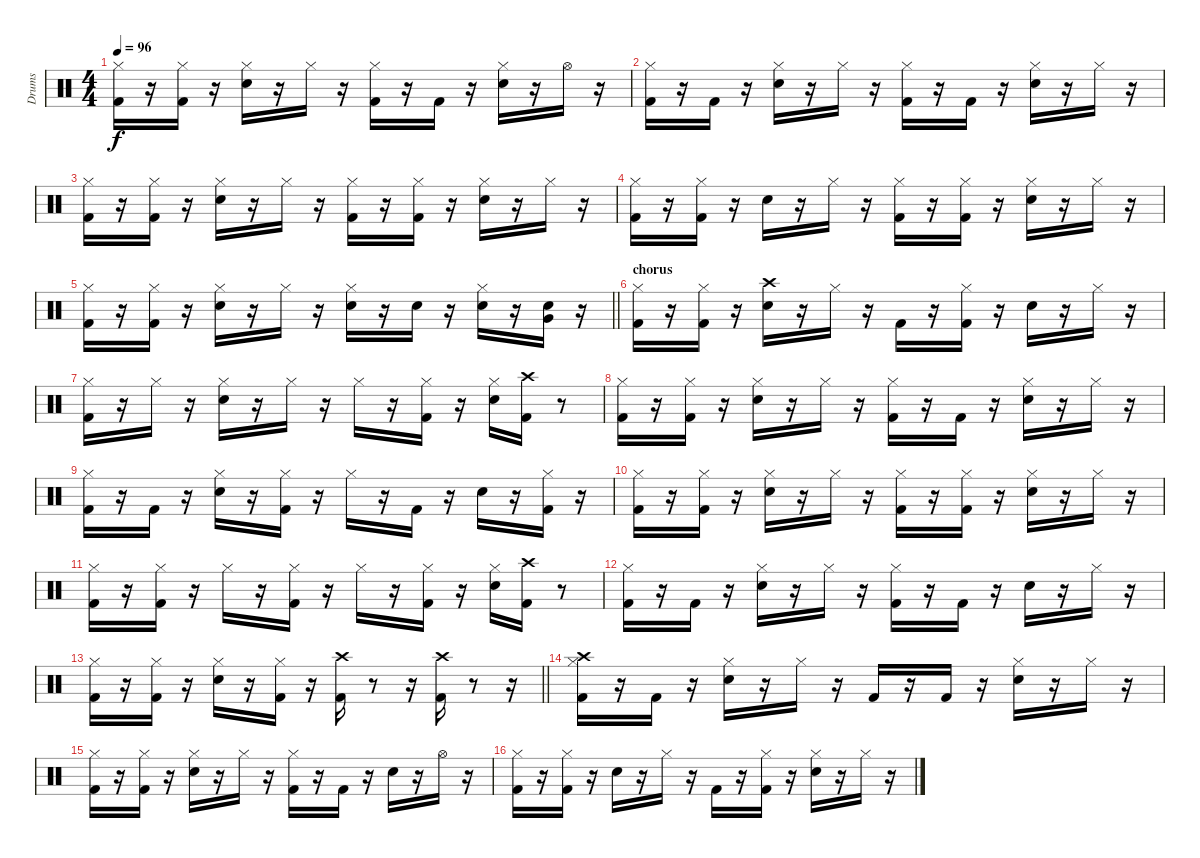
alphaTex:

\track ("Drums" "Drums") {instrument percussion}
\staff {score}
\articulation defaults
\ts (4 4)
\tempo 96
\clef neutral
\ks c
("Kick (hit) 2" "Hi-Hat (closed)").16{dy f} r.16 ("Kick (hit) 2" "Hi-Hat (closed)").16 r.16 ("Snare (hit) 2" "Hi-Hat (closed)").16 r.16 "Hi-Hat (closed)".16 r.16 ("Kick (hit) 2" "Hi-Hat (closed)").16 r.16 "Kick (hit) 2".16 r.16 ("Snare (hit) 2" "Hi-Hat (closed)").16 r.16 "Hi-Hat (open)".16 r.16 |
("Kick (hit) 2" "Hi-Hat (closed)").16 r.16 "Kick (hit) 2".16 r.16 ("Snare (hit) 2" "Hi-Hat (closed)").16 r.16 "Hi-Hat (closed)".16 r.16 ("Kick (hit) 2" "Hi-Hat (closed)").16 r.16 "Kick (hit) 2".16 r.16 ("Snare (hit) 2" "Hi-Hat (closed)").16 r.16 "Hi-Hat (closed)".16 r.16 |
("Kick (hit) 2" "Hi-Hat (closed)").16 r.16 ("Kick (hit) 2" "Hi-Hat (closed)").16 r.16 ("Snare (hit) 2" "Hi-Hat (closed)").16 r.16 "Hi-Hat (closed)".16 r.16 ("Kick (hit) 2" "Hi-Hat (closed)").16 r.16 ("Kick (hit) 2" "Hi-Hat (closed)").16 r.16 ("Snare (hit) 2" "Hi-Hat (closed)").16 r.16 "Hi-Hat (closed)".16 r.16 |
("Kick (hit) 2" "Hi-Hat (closed)").16 r.16 ("Kick (hit) 2" "Hi-Hat (closed)").16 r.16 "Snare (hit) 2".16 r.16 "Hi-Hat (closed)".16 r.16 ("Kick (hit) 2" "Hi-Hat (closed)").16 r.16 ("Kick (hit) 2" "Hi-Hat (closed)").16 r.16 ("Snare (hit) 2" "Hi-Hat (closed)").16 r.16 "Hi-Hat (closed)".16 r.16 |
\barLineRight lightlight
("Kick (hit) 2" "Hi-Hat (closed)").16 r.16 ("Kick (hit) 2" "Hi-Hat (closed)").16 r.16 ("Snare (hit) 2" "Hi-Hat (closed)").16 r.16 "Hi-Hat (closed)".16 r.16 ("Snare (hit) 2" "Hi-Hat (closed)").16 r.16 "Snare (hit) 2".16 r.16 ("Snare (hit) 2" "Hi-Hat (closed)").16 r.16 ("Snare (hit) 2" "Very Low Tom (hit)").16 r.16 |
\section ("" "chorus")
("Kick (hit) 2" "Hi-Hat (closed)").16 r.16 ("Kick (hit) 2" "Hi-Hat (closed)").16 r.16 ("Snare (hit) 2" "Crash high (hit)").16 r.16 "Hi-Hat (closed)".16 r.16 "Kick (hit) 2".16 r.16 ("Kick (hit) 2" "Hi-Hat (closed)").16 r.16 "Snare (hit) 2".16 r.16 "Hi-Hat (closed)".16 r.16 |
("Kick (hit) 2" "Hi-Hat (closed)").16 r.16 "Hi-Hat (closed)".16 r.16 ("Snare (hit) 2" "Hi-Hat (closed)").16 r.16 "Hi-Hat (closed)".16 r.16 "Hi-Hat (closed)".16 r.16 ("Kick (hit) 2" "Hi-Hat (closed)").16 r.16 ("Snare (hit) 2" "Hi-Hat (closed)").16 ("Kick (hit) 2" "Crash high (hit)").16 r.8 |
("Kick (hit) 2" "Hi-Hat (closed)").16 r.16 ("Kick (hit) 2" "Hi-Hat (closed)").16 r.16 ("Snare (hit) 2" "Hi-Hat (closed)").16 r.16 "Hi-Hat (closed)".16 r.16 ("Kick (hit) 2" "Hi-Hat (closed)").16 r.16 "Kick (hit) 2".16 r.16 ("Snare (hit) 2" "Hi-Hat (closed)").16 r.16 "Hi-Hat (closed)".16 r.16 |
("Kick (hit) 2" "Hi-Hat (closed)").16 r.16 "Kick (hit) 2".16 r.16 ("Snare (hit) 2" "Hi-Hat (closed)").16 r.16 ("Kick (hit) 2" "Hi-Hat (closed)").16 r.16 "Hi-Hat (closed)".16 r.16 "Kick (hit) 2".16 r.16 "Snare (hit) 2".16 r.16 ("Kick (hit) 2" "Hi-Hat (closed)").16 r.16 |
("Kick (hit) 2" "Hi-Hat (closed)").16 r.16 ("Kick (hit) 2" "Hi-Hat (closed)").16 r.16 ("Snare (hit) 2" "Hi-Hat (closed)").16 r.16 "Hi-Hat (closed)".16 r.16 ("Kick (hit) 2" "Hi-Hat (closed)").16 r.16 ("Kick (hit) 2" "Hi-Hat (closed)").16 r.16 ("Snare (hit) 2" "Hi-Hat (closed)").16 r.16 "Hi-Hat (closed)".16 r.16 |
("Kick (hit) 2" "Hi-Hat (closed)").16 r.16 ("Kick (hit) 2" "Hi-Hat (closed)").16 r.16 "Hi-Hat (closed)".16 r.16 ("Kick (hit) 2" "Hi-Hat (closed)").16 r.16 "Hi-Hat (closed)".16 r.16 ("Kick (hit) 2" "Hi-Hat (closed)").16 r.16 ("Snare (hit) 2" "Hi-Hat (closed)").16 ("Kick (hit) 2" "Crash high (hit)").16 r.8 |
("Kick (hit) 2" "Hi-Hat (closed)").16 r.16 "Kick (hit) 2".16 r.16 ("Snare (hit) 2" "Hi-Hat (closed)").16 r.16 "Hi-Hat (closed)".16 r.16 ("Kick (hit) 2" "Hi-Hat (closed)").16 r.16 "Kick (hit) 2".16 r.16 "Snare (hit) 2".16 r.16 "Hi-Hat (closed)".16 r.16 |
\barLineRight lightlight
("Kick (hit) 2" "Hi-Hat (closed)").16 r.16 ("Kick (hit) 2" "Hi-Hat (closed)").16 r.16 ("Snare (hit) 2" "Hi-Hat (closed)").16 r.16 ("Kick (hit) 2" "Hi-Hat (closed)").16 r.16 ("Kick (hit) 2" "Crash high (hit)").16 r.8 r.16 ("Kick (hit) 2" "Crash high (hit)").16 r.8 r.16 |
("Kick (hit) 2" "Hi-Hat (closed)" "Crash high (hit)").16 r.16 "Kick (hit) 2".16 r.16 ("Snare (hit) 2" "Hi-Hat (closed)").16 r.16 "Hi-Hat (closed)".16 r.16 "Kick (hit) 2".16 r.16 "Kick (hit) 2".16 r.16 ("Snare (hit) 2" "Hi-Hat (closed)").16 r.16 "Hi-Hat (closed)".16 r.16 |
("Kick (hit) 2" "Hi-Hat (closed)").16 r.16 ("Kick (hit) 2" "Hi-Hat (closed)").16 r.16 ("Snare (hit) 2" "Hi-Hat (closed)").16 r.16 "Hi-Hat (closed)".16 r.16 ("Kick (hit) 2" "Hi-Hat (closed)").16 r.16 "Kick (hit) 2".16 r.16 "Snare (hit) 2".16 r.16 "Hi-Hat (open)".16 r.16 |
("Kick (hit) 2" "Hi-Hat (closed)").16 r.16 ("Kick (hit) 2" "Hi-Hat (closed)").16 r.16 "Snare (hit) 2".16 r.16 "Hi-Hat (closed)".16 r.16 "Kick (hit) 2".16 r.16 ("Kick (hit) 2" "Hi-Hat (closed)").16 r.16 ("Snare (hit) 2" "Hi-Hat (closed)").16 r.16 "Hi-Hat (closed)".16 r.16
